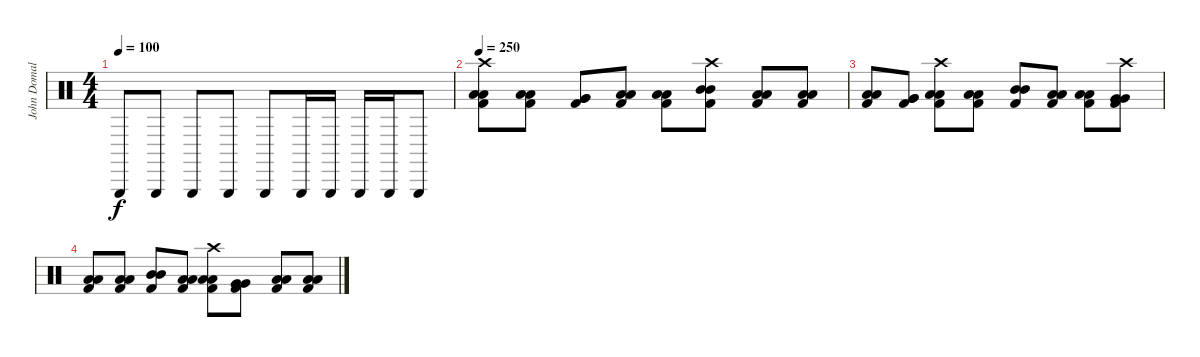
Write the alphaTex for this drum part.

\track ("John Domalayan" "John Domal") {instrument percussion}
\staff {score}
\articulation defaults
\ts (4 4)
\tempo 100
\clef neutral
\ks c "Triangle (hit)".8{dy f} "Triangle (hit)".8 "Triangle (hit)".8 "Triangle (hit)".8 "Triangle (hit)".8 "Triangle (hit)".16 "Triangle (hit)".16 "Triangle (hit)".16 "Triangle (hit)".16 "Triangle (hit)".8
|
\tempo 250
("Crash high (hit)" "Low Floor Tom (hit)" "Low Floor Tom (hit)" "Kick (hit) 2").8 ("Low Floor Tom (hit)" "Low Floor Tom (hit)" "Kick (hit) 2").8 ("Very Low Tom (hit)" "Very Low Tom (hit)" "Kick (hit) 2").8 ("Low Tom (hit)" "Low Tom (hit)" "Kick (hit) 2").8 ("Low Tom (hit)" "Low Tom (hit)" "Kick (hit) 2").8 ("Crash high (hit)" "Mid Tom (hit)" "Mid Tom (hit)" "Kick (hit) 2").8 ("Low Floor Tom (hit)" "Low Floor Tom (hit)" "Kick (hit) 2").8 ("Low Floor Tom (hit)" "Low Floor Tom (hit)" "Kick (hit) 2").8 |
("Low Floor Tom (hit)" "Low Floor Tom (hit)" "Kick (hit) 2").8 ("Very Low Tom (hit)" "Very Low Tom (hit)" "Kick (hit) 2").8 ("Crash high (hit)" "Low Tom (hit)" "Low Tom (hit)" "Kick (hit) 2").8 ("Low Tom (hit)" "Low Tom (hit)" "Kick (hit) 2").8 ("Mid Tom (hit)" "Mid Tom (hit)" "Kick (hit) 2").8 ("Low Floor Tom (hit)" "Low Floor Tom (hit)" "Kick (hit) 2").8 ("Low Floor Tom (hit)" "Low Floor Tom (hit)" "Kick (hit) 2").8 ("Crash high (hit)" "Very Low Tom (hit)" "Very Low Tom (hit)" "Kick (hit) 2").8 |
("Low Tom (hit)" "Low Tom (hit)" "Kick (hit) 2").8 ("Low Tom (hit)" "Low Tom (hit)" "Kick (hit) 2").8 ("Mid Tom (hit)" "Mid Tom (hit)" "Kick (hit) 2").8 ("Low Floor Tom (hit)" "Low Floor Tom (hit)" "Kick (hit) 2").8 ("Crash high (hit)" "Low Floor Tom (hit)" "Low Floor Tom (hit)" "Kick (hit) 2").8 ("Very Low Tom (hit)" "Very Low Tom (hit)" "Kick (hit) 2").8 ("Low Tom (hit)" "Low Tom (hit)" "Kick (hit) 2").8 ("Low Tom (hit)" "Low Tom (hit)" "Kick (hit) 2").8
